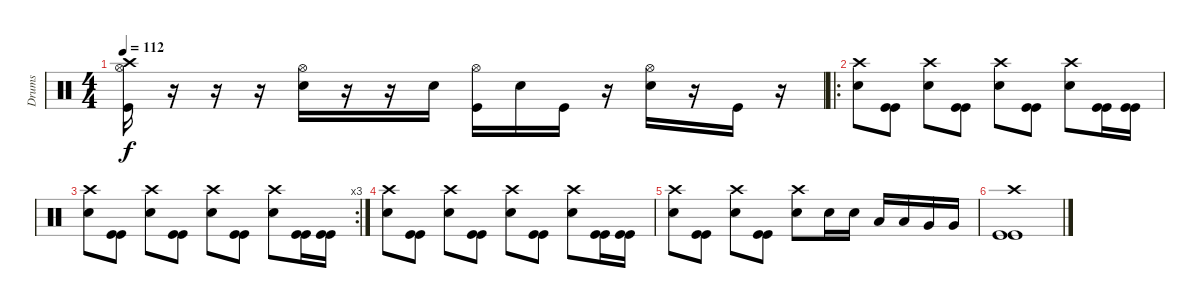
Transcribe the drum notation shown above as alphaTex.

\track ("Drums" "Drums") {instrument percussion}
\staff {score}
\articulation defaults
\ts (4 4)
\tempo 112
\clef neutral
\ks c
("Hi-Hat (open)" "Kick (hit)" "Crash high (hit)").16{dy f} r.16 r.16 r.16 ("Hi-Hat (open)" "Electric Snare (hit)").16 r.16 r.16 "Electric Snare (hit)".16 ("Hi-Hat (open)" "Kick (hit)").16 "Electric Snare (hit)".16 "Kick (hit)".16 r.16 ("Hi-Hat (open)" "Electric Snare (hit)").16 r.16 "Kick (hit)".16 r.16 |
\ro
("Crash high (hit)" "Electric Snare (hit)").8 ("Kick (hit)" "Kick (hit)").8 ("Crash high (hit)" "Electric Snare (hit)").8 ("Kick (hit)" "Kick (hit)").8 ("Crash high (hit)" "Electric Snare (hit)").8 ("Kick (hit)" "Kick (hit)").8 ("Crash high (hit)" "Electric Snare (hit)").8 ("Kick (hit)" "Kick (hit)").16 ("Kick (hit)" "Kick (hit)").16 |
\rc 3
("Crash high (hit)" "Electric Snare (hit)").8 ("Kick (hit)" "Kick (hit)").8 ("Crash high (hit)" "Electric Snare (hit)").8 ("Kick (hit)" "Kick (hit)").8 ("Crash high (hit)" "Electric Snare (hit)").8 ("Kick (hit)" "Kick (hit)").8 ("Crash high (hit)" "Electric Snare (hit)").8 ("Kick (hit)" "Kick (hit)").16 ("Kick (hit)" "Kick (hit)").16 |
("Crash high (hit)" "Electric Snare (hit)").8 ("Kick (hit)" "Kick (hit)").8 ("Crash high (hit)" "Electric Snare (hit)").8 ("Kick (hit)" "Kick (hit)").8 ("Crash high (hit)" "Electric Snare (hit)").8 ("Kick (hit)" "Kick (hit)").8 ("Crash high (hit)" "Electric Snare (hit)").8 ("Kick (hit)" "Kick (hit)").16 ("Kick (hit)" "Kick (hit)").16 |
("Crash high (hit)" "Electric Snare (hit)").8 ("Kick (hit)" "Kick (hit)").8 ("Crash high (hit)" "Electric Snare (hit)").8 ("Kick (hit)" "Kick (hit)").8 ("Crash high (hit)" "Electric Snare (hit)").8 "Electric Snare (hit)".16 "Electric Snare (hit)".16 "Low Floor Tom (hit)".16 "Low Floor Tom (hit)".16 "Very Low Tom (hit)".16 "Very Low Tom (hit)".16 |
("Crash high (hit)" "Kick (hit)" "Kick (hit)").1
